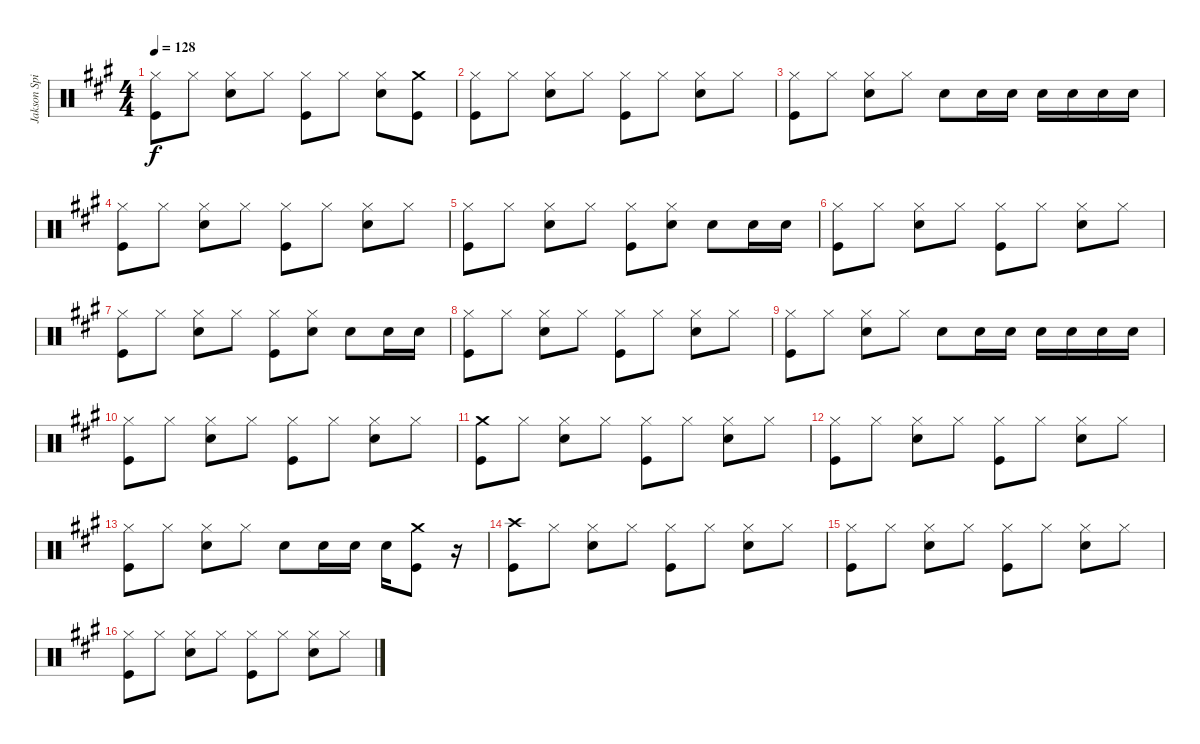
\track ("Jakson Spires Drums" "Jakson Spi") {instrument percussion}
\staff {score}
\articulation defaults
\ts (4 4)
\tempo 128
\clef neutral
\ks a
("Hi-Hat (closed)" "Kick (hit)").8{dy f} "Hi-Hat (closed)".8 ("Hi-Hat (closed)" "Snare (hit) 2").8 "Hi-Hat (closed)".8 ("Hi-Hat (closed)" "Kick (hit)").8 "Hi-Hat (closed)".8 ("Hi-Hat (closed)" "Snare (hit) 2").8 ("Crash medium (hit)" "Kick (hit)").8 |
("Hi-Hat (closed)" "Kick (hit)").8 "Hi-Hat (closed)".8 ("Hi-Hat (closed)" "Snare (hit) 2").8 "Hi-Hat (closed)".8 ("Hi-Hat (closed)" "Kick (hit)").8 "Hi-Hat (closed)".8 ("Hi-Hat (closed)" "Snare (hit) 2").8 "Hi-Hat (closed)".8 |
("Hi-Hat (closed)" "Kick (hit)").8 "Hi-Hat (closed)".8 ("Hi-Hat (closed)" "Snare (hit) 2").8 "Hi-Hat (closed)".8 "Snare (hit) 2".8 "Snare (hit) 2".16 "Snare (hit) 2".16 "Snare (hit) 2".16 "Snare (hit) 2".16 "Snare (hit) 2".16 "Snare (hit) 2".16 |
("Hi-Hat (closed)" "Kick (hit)").8 "Hi-Hat (closed)".8 ("Hi-Hat (closed)" "Snare (hit) 2").8 "Hi-Hat (closed)".8 ("Hi-Hat (closed)" "Kick (hit)").8 "Hi-Hat (closed)".8 ("Hi-Hat (closed)" "Snare (hit) 2").8 "Hi-Hat (closed)".8 |
("Hi-Hat (closed)" "Kick (hit)").8 "Hi-Hat (closed)".8 ("Hi-Hat (closed)" "Snare (hit) 2").8 "Hi-Hat (closed)".8 ("Hi-Hat (closed)" "Kick (hit)").8 ("Hi-Hat (closed)" "Snare (hit) 2").8 "Snare (hit) 2".8 "Snare (hit) 2".16 "Snare (hit) 2".16 |
("Hi-Hat (closed)" "Kick (hit)").8 "Hi-Hat (closed)".8 ("Hi-Hat (closed)" "Snare (hit) 2").8 "Hi-Hat (closed)".8 ("Hi-Hat (closed)" "Kick (hit)").8 "Hi-Hat (closed)".8 ("Hi-Hat (closed)" "Snare (hit) 2").8 "Hi-Hat (closed)".8 |
("Hi-Hat (closed)" "Kick (hit)").8 "Hi-Hat (closed)".8 ("Hi-Hat (closed)" "Snare (hit) 2").8 "Hi-Hat (closed)".8 ("Hi-Hat (closed)" "Kick (hit)").8 ("Hi-Hat (closed)" "Snare (hit) 2").8 "Snare (hit) 2".8 "Snare (hit) 2".16 "Snare (hit) 2".16 |
("Hi-Hat (closed)" "Kick (hit)").8 "Hi-Hat (closed)".8 ("Hi-Hat (closed)" "Snare (hit) 2").8 "Hi-Hat (closed)".8 ("Hi-Hat (closed)" "Kick (hit)").8 "Hi-Hat (closed)".8 ("Hi-Hat (closed)" "Snare (hit) 2").8 "Hi-Hat (closed)".8 |
("Hi-Hat (closed)" "Kick (hit)").8 "Hi-Hat (closed)".8 ("Hi-Hat (closed)" "Snare (hit) 2").8 "Hi-Hat (closed)".8 "Snare (hit) 2".8 "Snare (hit) 2".16 "Snare (hit) 2".16 "Snare (hit) 2".16 "Snare (hit) 2".16 "Snare (hit) 2".16 "Snare (hit) 2".16 |
("Hi-Hat (closed)" "Kick (hit)").8 "Hi-Hat (closed)".8 ("Hi-Hat (closed)" "Snare (hit) 2").8 "Hi-Hat (closed)".8 ("Hi-Hat (closed)" "Kick (hit)").8 "Hi-Hat (closed)".8 ("Hi-Hat (closed)" "Snare (hit) 2").8 "Hi-Hat (closed)".8 |
("Crash medium (hit)" "Kick (hit)").8 "Hi-Hat (closed)".8 ("Hi-Hat (closed)" "Snare (hit) 2").8 "Hi-Hat (closed)".8 ("Hi-Hat (closed)" "Kick (hit)").8 "Hi-Hat (closed)".8 ("Hi-Hat (closed)" "Snare (hit) 2").8 "Hi-Hat (closed)".8 |
("Hi-Hat (closed)" "Kick (hit)").8 "Hi-Hat (closed)".8 ("Hi-Hat (closed)" "Snare (hit) 2").8 "Hi-Hat (closed)".8 ("Hi-Hat (closed)" "Kick (hit)").8 "Hi-Hat (closed)".8 ("Hi-Hat (closed)" "Snare (hit) 2").8 "Hi-Hat (closed)".8 |
("Hi-Hat (closed)" "Kick (hit)").8 "Hi-Hat (closed)".8 ("Hi-Hat (closed)" "Snare (hit) 2").8 "Hi-Hat (closed)".8 "Snare (hit) 2".8 "Snare (hit) 2".16 "Snare (hit) 2".16 "Snare (hit) 2".16 ("Crash medium (hit)" "Kick (hit)").8 r.16 |
("Crash high (hit)" "Kick (hit)").8 "Hi-Hat (closed)".8 ("Hi-Hat (closed)" "Snare (hit) 2").8 "Hi-Hat (closed)".8 ("Hi-Hat (closed)" "Kick (hit)").8 "Hi-Hat (closed)".8 ("Hi-Hat (closed)" "Snare (hit) 2").8 "Hi-Hat (closed)".8 |
("Hi-Hat (closed)" "Kick (hit)").8 "Hi-Hat (closed)".8 ("Hi-Hat (closed)" "Snare (hit) 2").8 "Hi-Hat (closed)".8 ("Hi-Hat (closed)" "Kick (hit)").8 "Hi-Hat (closed)".8 ("Hi-Hat (closed)" "Snare (hit) 2").8 "Hi-Hat (closed)".8 |
("Hi-Hat (closed)" "Kick (hit)").8 "Hi-Hat (closed)".8 ("Hi-Hat (closed)" "Snare (hit) 2").8 "Hi-Hat (closed)".8 ("Hi-Hat (closed)" "Kick (hit)").8 "Hi-Hat (closed)".8 ("Hi-Hat (closed)" "Snare (hit) 2").8 "Hi-Hat (closed)".8
